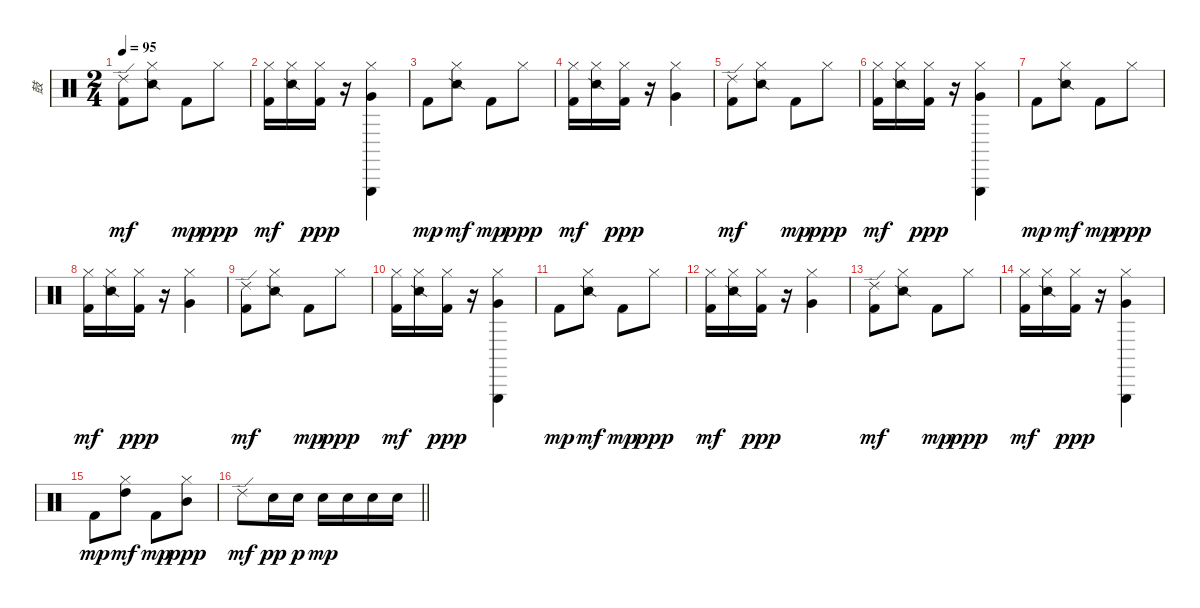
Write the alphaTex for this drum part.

\track ("鼓" "鼓") {instrument percussion}
\staff {score}
\articulation defaults
\ts (2 4)
\tempo 95
\clef neutral
\ks c
("Kick (hit) 2" "Ride (edge) 2").8{dy mf} ("Snare (side stick) 2" "Hi-Hat (closed)").8 "Kick (hit) 2".8{dy mp} "Hi-Hat (closed)".8{dy ppp} |
("Kick (hit) 2" "Hi-Hat (closed)").16{dy mf} ("Snare (side stick) 2" "Hi-Hat (closed)").16 ("Kick (hit) 2" "Hi-Hat (closed)").16{dy ppp} r.16 ("Triangle (hit)" "Very Low Tom (hit)" "Hi-Hat (closed)").4 |
"Kick (hit) 2".8{dy mp} ("Snare (side stick) 2" "Hi-Hat (closed)").8{dy mf} "Kick (hit) 2".8{dy mp} "Hi-Hat (closed)".8{dy ppp} |
("Kick (hit) 2" "Hi-Hat (closed)").16{dy mf} ("Snare (side stick) 2" "Hi-Hat (closed)").16 ("Kick (hit) 2" "Hi-Hat (closed)").16{dy ppp} r.16 ("Very Low Tom (hit)" "Hi-Hat (closed)").4 |
("Kick (hit) 2" "Ride (edge) 2").8{dy mf} ("Snare (side stick) 2" "Hi-Hat (closed)").8 "Kick (hit) 2".8{dy mp} "Hi-Hat (closed)".8{dy ppp} |
("Kick (hit) 2" "Hi-Hat (closed)").16{dy mf} ("Snare (side stick) 2" "Hi-Hat (closed)").16 ("Kick (hit) 2" "Hi-Hat (closed)").16{dy ppp} r.16 ("Triangle (hit)" "Very Low Tom (hit)" "Hi-Hat (closed)").4 |
"Kick (hit) 2".8{dy mp} ("Snare (side stick) 2" "Hi-Hat (closed)").8{dy mf} "Kick (hit) 2".8{dy mp} "Hi-Hat (closed)".8{dy ppp} |
("Kick (hit) 2" "Hi-Hat (closed)").16{dy mf} ("Snare (side stick) 2" "Hi-Hat (closed)").16 ("Kick (hit) 2" "Hi-Hat (closed)").16{dy ppp} r.16 ("Very Low Tom (hit)" "Hi-Hat (closed)").4 |
("Kick (hit) 2" "Ride (edge) 2").8{dy mf} ("Snare (side stick) 2" "Hi-Hat (closed)").8 "Kick (hit) 2".8{dy mp} "Hi-Hat (closed)".8{dy ppp} |
("Kick (hit) 2" "Hi-Hat (closed)").16{dy mf} ("Snare (side stick) 2" "Hi-Hat (closed)").16 ("Kick (hit) 2" "Hi-Hat (closed)").16{dy ppp} r.16 ("Triangle (hit)" "Very Low Tom (hit)" "Hi-Hat (closed)").4 |
"Kick (hit) 2".8{dy mp} ("Snare (side stick) 2" "Hi-Hat (closed)").8{dy mf} "Kick (hit) 2".8{dy mp} "Hi-Hat (closed)".8{dy ppp} |
("Kick (hit) 2" "Hi-Hat (closed)").16{dy mf} ("Snare (side stick) 2" "Hi-Hat (closed)").16 ("Kick (hit) 2" "Hi-Hat (closed)").16{dy ppp} r.16 ("Very Low Tom (hit)" "Hi-Hat (closed)").4 |
("Kick (hit) 2" "Ride (edge) 2").8{dy mf} ("Snare (side stick) 2" "Hi-Hat (closed)").8 "Kick (hit) 2".8{dy mp} "Hi-Hat (closed)".8{dy ppp} |
("Kick (hit) 2" "Hi-Hat (closed)").16{dy mf} ("Snare (side stick) 2" "Hi-Hat (closed)").16 ("Kick (hit) 2" "Hi-Hat (closed)").16{dy ppp} r.16 ("Triangle (hit)" "Very Low Tom (hit)" "Hi-Hat (closed)").4 |
"Kick (hit) 2".8{dy mp} ("High Tom (hit)" "Hi-Hat (closed)").8{dy mf} "Kick (hit) 2".8{dy mp} ("Mid Tom (hit)" "Hi-Hat (closed)").8{dy ppp} |
\barLineRight lightlight "Ride (edge) 2".8{dy mf} "Electric Snare (hit)".16{dy pp} "Electric Snare (hit)".16{dy p} "Electric Snare (hit)".16{dy mp} "Electric Snare (hit)".16 "Electric Snare (hit)".16 "Electric Snare (hit)".16
